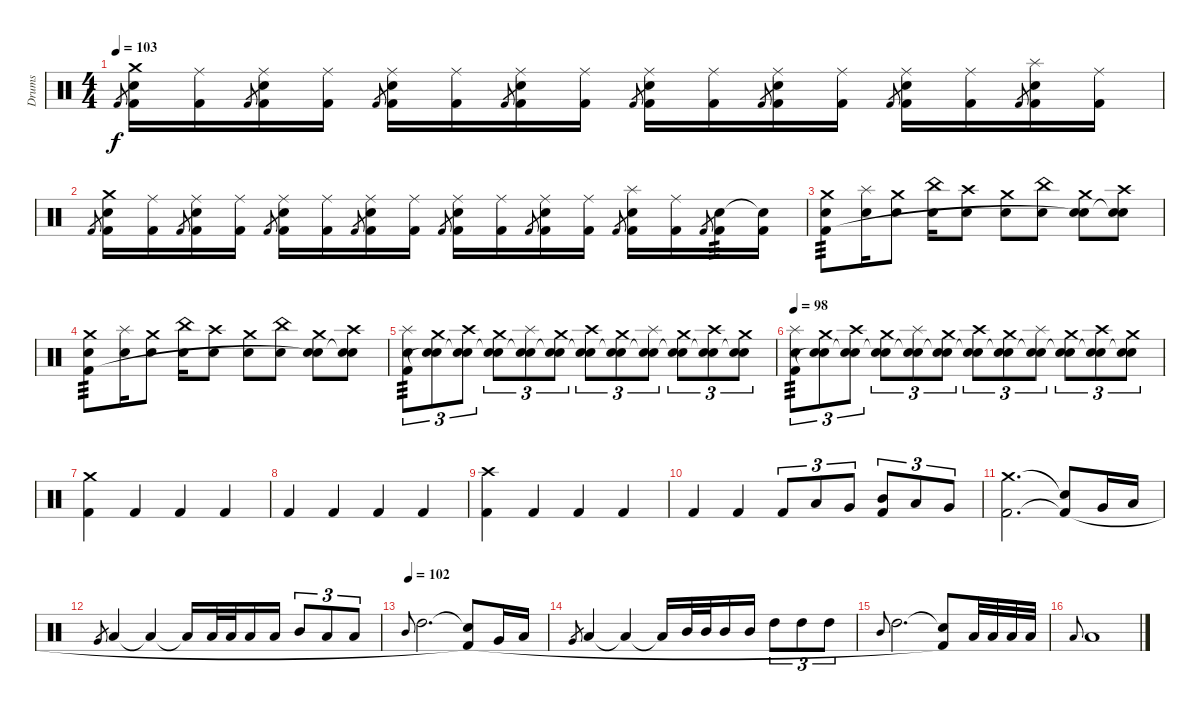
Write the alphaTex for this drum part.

\track ("Drums" "Drums") {instrument percussion}
\staff {score}
\articulation defaults
\ts (4 4)
\tempo 103
\clef neutral
\ks c "Kick (hit) 2".8{gr dy f}
("Crash medium (hit)" "Snare (hit) 2" "Kick (hit) 2").16 ("Ride (middle)" "Kick (hit) 2").16 "Kick (hit) 2".8{gr} ("Ride (middle)" "Snare (hit) 2" "Kick (hit) 2").16 ("Ride (middle)" "Kick (hit) 2").16 "Kick (hit) 2".8{gr} ("Ride (middle)" "Snare (hit) 2" "Kick (hit) 2").16 ("Ride (middle)" "Kick (hit) 2").16 "Kick (hit) 2".8{gr} ("Ride (middle)" "Snare (hit) 2" "Kick (hit) 2").16 ("Ride (middle)" "Kick (hit) 2").16 "Kick (hit) 2".8{gr} ("Ride (middle)" "Snare (hit) 2" "Kick (hit) 2").16 ("Ride (middle)" "Kick (hit) 2").16 "Kick (hit) 2".8{gr} ("Ride (middle)" "Snare (hit) 2" "Kick (hit) 2").16 ("Ride (middle)" "Kick (hit) 2").16 "Kick (hit) 2".8{gr} ("Ride (middle)" "Snare (hit) 2" "Kick (hit) 2").16 ("Ride (middle)" "Kick (hit) 2").16 "Kick (hit) 2".8{gr} ("Splash (hit)" "Snare (hit) 2" "Kick (hit) 2").16 ("Ride (middle)" "Kick (hit) 2").16 |
"Kick (hit) 2".8{gr} ("Crash medium (hit)" "Snare (hit) 2" "Kick (hit) 2").16 ("Ride (middle)" "Kick (hit) 2").16 "Kick (hit) 2".8{gr} ("Ride (middle)" "Snare (hit) 2" "Kick (hit) 2").16 ("Ride (middle)" "Kick (hit) 2").16 "Kick (hit) 2".8{gr} ("Ride (middle)" "Snare (hit) 2" "Kick (hit) 2").16 ("Ride (middle)" "Kick (hit) 2").16 "Kick (hit) 2".8{gr} ("Ride (middle)" "Snare (hit) 2" "Kick (hit) 2").16 ("Ride (middle)" "Kick (hit) 2").16 "Kick (hit) 2".8{gr} ("Ride (middle)" "Snare (hit) 2" "Kick (hit) 2").16 ("Ride (middle)" "Kick (hit) 2").16 "Kick (hit) 2".8{gr} ("Ride (middle)" "Snare (hit) 2" "Kick (hit) 2").16 ("Ride (middle)" "Kick (hit) 2").16 "Kick (hit) 2".8{gr} ("Splash (hit)" "Snare (hit) 2" "Kick (hit) 2").16 ("Ride (middle)" "Kick (hit) 2").16 "Kick (hit) 2".8{gr} ("Snare (hit) 2" "Kick (hit) 2").16{tp 3} ("Snare (hit)"{t} "Kick (hit) 2").16 |
("Crash medium (hit)" "Snare (hit) 2" "Kick (hit) 2").8{tp 3} ("Splash (hit)" "Snare (hit) 2").16 ("Crash medium (hit)" "Snare (hit) 2").8 ("China (hit)" "Snare (hit) 2").16 ("Crash high (hit)" "Snare (hit) 2").8 ("Crash medium (hit)" "Snare (hit) 2").8 ("China (hit)" "Snare (hit) 2").8 ("Crash medium (hit)" "Snare (hit) 2" "Snare (hit)"{t}).8 ("Crash high (hit)" "Snare (hit) 2" "Snare (hit)"{t}).8 |
("Crash medium (hit)" "Snare (hit) 2" "Kick (hit) 2").8{tp 3} ("Splash (hit)" "Snare (hit) 2").16 ("Crash medium (hit)" "Snare (hit) 2").8 ("China (hit)" "Snare (hit) 2").16 ("Crash high (hit)" "Snare (hit) 2").8 ("Crash medium (hit)" "Snare (hit) 2").8 ("China (hit)" "Snare (hit) 2").8 ("Crash medium (hit)" "Snare (hit) 2" "Snare (hit)"{t}).8 ("Crash high (hit)" "Snare (hit) 2" "Snare (hit)"{t}).8 |
("Splash (hit)" "Snare (hit) 2" "Kick (hit) 2").8{tu (3 2) tp 3} ("Crash medium (hit)" "Snare (hit) 2" "Snare (hit)"{t}).8{tu (3 2)} ("Crash high (hit)" "Snare (hit) 2" "Snare (hit)"{t}).8{tu (3 2)} ("Crash medium (hit)" "Snare (hit) 2" "Snare (hit)"{t}).8{tu (3 2)} ("Splash (hit)" "Snare (hit) 2" "Snare (hit)"{t}).8{tu (3 2)} ("Crash medium (hit)" "Snare (hit) 2" "Snare (hit)"{t}).8{tu (3 2)} ("Crash high (hit)" "Snare (hit) 2" "Snare (hit)"{t}).8{tu (3 2)} ("Crash medium (hit)" "Snare (hit) 2" "Snare (hit)"{t}).8{tu (3 2)} ("Splash (hit)" "Snare (hit) 2" "Snare (hit)"{t}).8{tu (3 2)} ("Crash medium (hit)" "Snare (hit) 2" "Snare (hit)"{t}).8{tu (3 2)} ("Crash high (hit)" "Snare (hit) 2" "Snare (hit)"{t}).8{tu (3 2)} ("Crash medium (hit)" "Snare (hit) 2" "Snare (hit)"{t}).8{tu (3 2)} |
\tempo 98
("Splash (hit)" "Snare (hit) 2" "Kick (hit) 2").8{tu (3 2) tp 3} ("Crash medium (hit)" "Snare (hit) 2" "Snare (hit)"{t}).8{tu (3 2)} ("Crash high (hit)" "Snare (hit) 2" "Snare (hit)"{t}).8{tu (3 2)} ("Crash medium (hit)" "Snare (hit) 2" "Snare (hit)"{t}).8{tu (3 2)} ("Splash (hit)" "Snare (hit) 2" "Snare (hit)"{t}).8{tu (3 2)} ("Crash medium (hit)" "Snare (hit) 2" "Snare (hit)"{t}).8{tu (3 2)} ("Crash high (hit)" "Snare (hit) 2" "Snare (hit)"{t}).8{tu (3 2)} ("Crash medium (hit)" "Snare (hit) 2" "Snare (hit)"{t}).8{tu (3 2)} ("Splash (hit)" "Snare (hit) 2" "Snare (hit)"{t}).8{tu (3 2)} ("Crash medium (hit)" "Snare (hit) 2" "Snare (hit)"{t}).8{tu (3 2)} ("Crash high (hit)" "Snare (hit) 2" "Snare (hit)"{t}).8{tu (3 2)} ("Crash medium (hit)" "Snare (hit) 2" "Snare (hit)"{t}).8{tu (3 2)} |
("Crash medium (hit)" "Kick (hit) 2").4 "Kick (hit) 2".4 "Kick (hit) 2".4 "Kick (hit) 2".4 |
"Kick (hit) 2".4 "Kick (hit) 2".4 "Kick (hit) 2".4 "Kick (hit) 2".4 |
("Crash high (hit)" "Kick (hit) 2").4 "Kick (hit) 2".4 "Kick (hit) 2".4 "Kick (hit) 2".4 |
"Kick (hit) 2".4 "Kick (hit) 2".4 "Kick (hit) 2".8{tu (3 2)} "Low Tom (hit)".8{tu (3 2)} "Very Low Tom (hit)".8{tu (3 2)} ("Mid Tom (hit)" "Kick (hit) 2").8{tu (3 2)} "Low Tom (hit)".8{tu (3 2)} "Very Low Tom (hit)".8{tu (3 2)} |
("Crash medium (hit)" "Kick (hit) 2").2{d} ("Snare (hit)"{t} "Kick (hit) 2"{t}).8 "Very Low Tom (hit)".16 "Low Tom (hit)".16 |
"Very Low Tom (hit)"{h}.8{gr} "Low Tom (hit)".4 "Low Floor Tom (hit)"{t}.4 "Low Tom (hit)"{t}.16 "Low Tom (hit)".32 "Low Tom (hit)".32 "Low Tom (hit)".16 "Low Tom (hit)".16 "Mid Tom (hit)".8{tu (3 2)} "Low Tom (hit)".8{tu (3 2)} "Low Tom (hit)".8{tu (3 2)} |
\tempo (102 0.03125)
"Mid Tom (hit)".8{gr onbeat} "High Tom (hit)".2{d} ("Snare (hit)"{t} "Kick (hit) 2"{t}).8 "Very Low Tom (hit)".16 "Low Tom (hit)".16 |
"Very Low Tom (hit)"{h}.8{gr} "Low Tom (hit)".4 "Low Floor Tom (hit)"{t}.4 "Low Tom (hit)"{t}.16 "Mid Tom (hit)".32 "Mid Tom (hit)".32 "Mid Tom (hit)".16 "Mid Tom (hit)".16 "High Tom (hit)".8{tu (3 2)} "High Tom (hit)".8{tu (3 2)} "High Tom (hit)".8{tu (3 2)} |
"Mid Tom (hit)".8{gr onbeat} "High Tom (hit)".2{d} ("Snare (hit)"{t} "Kick (hit) 2"{t}).8 "Low Floor Tom (hit)".32 "Low Floor Tom (hit)".32 "Low Floor Tom (hit)".32 "Low Floor Tom (hit)".32 |
"Low Floor Tom (hit)".8{gr onbeat} "Low Tom (hit)".1
